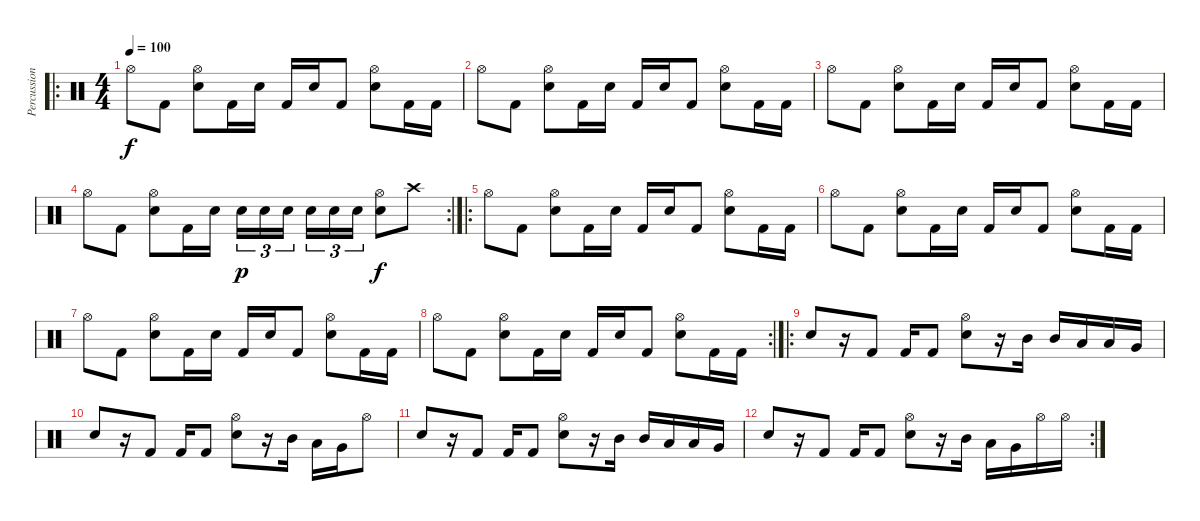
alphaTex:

\track ("Percussioni" "Percussion") {instrument percussion}
\staff {score}
\articulation defaults
\ro
\ts (4 4)
\tempo 100
\clef neutral
\ks c "Hi-Hat (open)".8{dy f} "Kick (hit) 2".8
("Hi-Hat (open)" "Electric Snare (hit)").8 "Kick (hit) 2".16 "Electric Snare (hit)".16 "Kick (hit) 2".16 "Electric Snare (hit)".16 "Kick (hit) 2".8 ("Hi-Hat (open)" "Electric Snare (hit)").8 "Kick (hit) 2".16 "Kick (hit) 2".16 |
"Hi-Hat (open)".8 "Kick (hit) 2".8 ("Hi-Hat (open)" "Electric Snare (hit)").8 "Kick (hit) 2".16 "Electric Snare (hit)".16 "Kick (hit) 2".16 "Electric Snare (hit)".16 "Kick (hit) 2".8 ("Hi-Hat (open)" "Electric Snare (hit)").8 "Kick (hit) 2".16 "Kick (hit) 2".16 |
"Hi-Hat (open)".8 "Kick (hit) 2".8 ("Hi-Hat (open)" "Electric Snare (hit)").8 "Kick (hit) 2".16 "Electric Snare (hit)".16 "Kick (hit) 2".16 "Electric Snare (hit)".16 "Kick (hit) 2".8 ("Hi-Hat (open)" "Electric Snare (hit)").8 "Kick (hit) 2".16 "Kick (hit) 2".16 |
\rc 2 "Hi-Hat (open)".8 "Kick (hit) 2".8
("Hi-Hat (open)" "Electric Snare (hit)").8 "Kick (hit) 2".16 "Electric Snare (hit)".16 "Electric Snare (hit)".16{tu (3 2) dy p} "Electric Snare (hit)".16{tu (3 2)} "Electric Snare (hit)".16{tu (3 2)} "Electric Snare (hit)".16{tu (3 2)} "Electric Snare (hit)".16{tu (3 2)} "Electric Snare (hit)".16{tu (3 2)} ("Hi-Hat (open)" "Electric Snare (hit)").8{dy f} "Crash high (hit)".8 |
\ro "Hi-Hat (open)".8 "Kick (hit) 2".8
("Hi-Hat (open)" "Electric Snare (hit)").8 "Kick (hit) 2".16 "Electric Snare (hit)".16 "Kick (hit) 2".16 "Electric Snare (hit)".16 "Kick (hit) 2".8 ("Hi-Hat (open)" "Electric Snare (hit)").8 "Kick (hit) 2".16 "Kick (hit) 2".16 |
"Hi-Hat (open)".8 "Kick (hit) 2".8 ("Hi-Hat (open)" "Electric Snare (hit)").8 "Kick (hit) 2".16 "Electric Snare (hit)".16 "Kick (hit) 2".16 "Electric Snare (hit)".16 "Kick (hit) 2".8 ("Hi-Hat (open)" "Electric Snare (hit)").8 "Kick (hit) 2".16 "Kick (hit) 2".16 |
"Hi-Hat (open)".8 "Kick (hit) 2".8 ("Hi-Hat (open)" "Electric Snare (hit)").8 "Kick (hit) 2".16 "Electric Snare (hit)".16 "Kick (hit) 2".16 "Electric Snare (hit)".16 "Kick (hit) 2".8 ("Hi-Hat (open)" "Electric Snare (hit)").8 "Kick (hit) 2".16 "Kick (hit) 2".16 |
\rc 2 "Hi-Hat (open)".8 "Kick (hit) 2".8
("Hi-Hat (open)" "Electric Snare (hit)").8 "Kick (hit) 2".16 "Electric Snare (hit)".16 "Kick (hit) 2".16 "Electric Snare (hit)".16 "Kick (hit) 2".8 ("Hi-Hat (open)" "Electric Snare (hit)").8 "Kick (hit) 2".16 "Kick (hit) 2".16 |
\ro "Electric Snare (hit)".8
r.16 "Kick (hit) 2".8 "Kick (hit) 2".16 "Kick (hit) 2".8 ("Hi-Hat (open)" "Electric Snare (hit)").8 r.16 "Mid Tom (hit)".16 "Mid Tom (hit)".16 "Low Tom (hit)".16 "Low Tom (hit)".16 "Very Low Tom (hit)".16 |
"Electric Snare (hit)".8 r.16 "Kick (hit) 2".8 "Kick (hit) 2".16 "Kick (hit) 2".8 ("Hi-Hat (open)" "Electric Snare (hit)").8 r.16 "Mid Tom (hit)".16 "Low Tom (hit)".16 "Very Low Tom (hit)".16 "Hi-Hat (open)".8 |
"Electric Snare (hit)".8 r.16 "Kick (hit) 2".8 "Kick (hit) 2".16 "Kick (hit) 2".8 ("Hi-Hat (open)" "Electric Snare (hit)").8 r.16 "Mid Tom (hit)".16 "Mid Tom (hit)".16 "Low Tom (hit)".16 "Low Tom (hit)".16 "Very Low Tom (hit)".16 |
\rc 2 "Electric Snare (hit)".8
r.16 "Kick (hit) 2".8 "Kick (hit) 2".16 "Kick (hit) 2".8 ("Hi-Hat (open)" "Electric Snare (hit)").8 r.16 "Mid Tom (hit)".16 "Low Tom (hit)".16 "Very Low Tom (hit)".16 "Hi-Hat (open)".16 "Hi-Hat (open)".16
